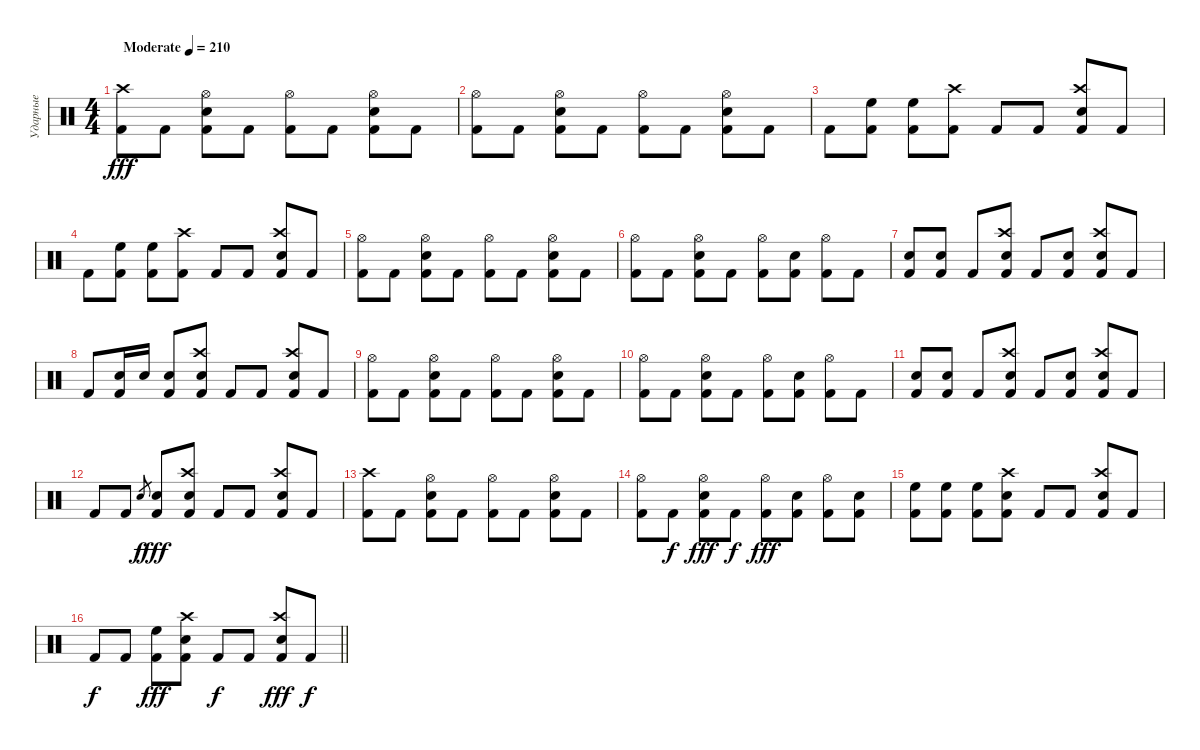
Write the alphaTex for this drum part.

\track ("Ударные" "Ударные") {instrument percussion}
\staff {score}
\articulation defaults
\ts (4 4)
\tempo (210 "Moderate")
\clef neutral
\ks c
("Kick (hit) 2" "Crash high (hit)").8{dy fff} "Kick (hit) 2".8 ("Kick (hit) 2" "Snare (hit) 2" "Hi-Hat (open)").8 "Kick (hit) 2".8 ("Kick (hit) 2" "Hi-Hat (open)").8 "Kick (hit) 2".8 ("Kick (hit) 2" "Snare (hit) 2" "Hi-Hat (open)").8 "Kick (hit) 2".8 |
("Kick (hit) 2" "Hi-Hat (open)").8 "Kick (hit) 2".8 ("Kick (hit) 2" "Snare (hit) 2" "Hi-Hat (open)").8 "Kick (hit) 2".8 ("Kick (hit) 2" "Hi-Hat (open)").8 "Kick (hit) 2".8 ("Kick (hit) 2" "Snare (hit) 2" "Hi-Hat (open)").8 "Kick (hit) 2".8 |
"Kick (hit) 2".8 ("Kick (hit) 2" "High Floor Tom (hit)").8 ("Kick (hit) 2" "High Floor Tom (hit)").8 ("Kick (hit) 2" "Crash high (hit)").8 "Kick (hit) 2".8 "Kick (hit) 2".8 ("Kick (hit) 2" "Snare (hit) 2" "Crash high (hit)").8 "Kick (hit) 2".8 |
"Kick (hit) 2".8 ("Kick (hit) 2" "High Floor Tom (hit)").8 ("Kick (hit) 2" "High Floor Tom (hit)").8 ("Kick (hit) 2" "Crash high (hit)").8 "Kick (hit) 2".8 "Kick (hit) 2".8 ("Kick (hit) 2" "Snare (hit) 2" "Crash high (hit)").8 "Kick (hit) 2".8 |
("Kick (hit) 2" "Hi-Hat (open)").8 "Kick (hit) 2".8 ("Kick (hit) 2" "Snare (hit) 2" "Hi-Hat (open)").8 "Kick (hit) 2".8 ("Kick (hit) 2" "Hi-Hat (open)").8 "Kick (hit) 2".8 ("Kick (hit) 2" "Snare (hit) 2" "Hi-Hat (open)").8 "Kick (hit) 2".8 |
("Kick (hit) 2" "Hi-Hat (open)").8 "Kick (hit) 2".8 ("Kick (hit) 2" "Snare (hit) 2" "Hi-Hat (open)").8 "Kick (hit) 2".8 ("Kick (hit) 2" "Hi-Hat (open)").8 ("Kick (hit) 2" "Snare (hit) 2").8 ("Kick (hit) 2" "Hi-Hat (open)").8 "Kick (hit) 2".8 |
("Kick (hit) 2" "Electric Snare (hit)").8 ("Kick (hit) 2" "Electric Snare (hit)").8 "Kick (hit) 2".8 ("Kick (hit) 2" "Snare (hit) 2" "Crash high (hit)").8 "Kick (hit) 2".8 ("Kick (hit) 2" "Electric Snare (hit)").8 ("Kick (hit) 2" "Snare (hit) 2" "Crash high (hit)").8 "Kick (hit) 2".8 |
"Kick (hit) 2".8 ("Kick (hit) 2" "Electric Snare (hit)").16 "Electric Snare (hit)".16 ("Kick (hit) 2" "Electric Snare (hit)").8 ("Kick (hit) 2" "Snare (hit) 2" "Crash high (hit)").8 "Kick (hit) 2".8 "Kick (hit) 2".8 ("Kick (hit) 2" "Snare (hit) 2" "Crash high (hit)").8 "Kick (hit) 2".8 |
("Kick (hit) 2" "Hi-Hat (open)").8 "Kick (hit) 2".8 ("Kick (hit) 2" "Snare (hit) 2" "Hi-Hat (open)").8 "Kick (hit) 2".8 ("Kick (hit) 2" "Hi-Hat (open)").8 "Kick (hit) 2".8 ("Kick (hit) 2" "Snare (hit) 2" "Hi-Hat (open)").8 "Kick (hit) 2".8 |
("Kick (hit) 2" "Hi-Hat (open)").8 "Kick (hit) 2".8 ("Kick (hit) 2" "Snare (hit) 2" "Hi-Hat (open)").8 "Kick (hit) 2".8 ("Kick (hit) 2" "Hi-Hat (open)").8 ("Kick (hit) 2" "Snare (hit) 2").8 ("Kick (hit) 2" "Hi-Hat (open)").8 "Kick (hit) 2".8 |
("Kick (hit) 2" "Snare (hit) 2").8 ("Kick (hit) 2" "Snare (hit) 2").8 "Kick (hit) 2".8 ("Kick (hit) 2" "Snare (hit) 2" "Crash high (hit)").8 "Kick (hit) 2".8 ("Kick (hit) 2" "Electric Snare (hit)").8 ("Kick (hit) 2" "Snare (hit) 2" "Crash high (hit)").8 "Kick (hit) 2".8 |
"Kick (hit) 2".8 "Kick (hit) 2".8 "Snare (hit) 2".8{gr dy f} ("Kick (hit) 2" "Snare (hit) 2").8{dy fff} ("Kick (hit) 2" "Snare (hit) 2" "Crash high (hit)").8 "Kick (hit) 2".8 "Kick (hit) 2".8 ("Kick (hit) 2" "Snare (hit) 2" "Crash high (hit)").8 "Kick (hit) 2".8 |
("Kick (hit) 2" "Crash high (hit)").8 "Kick (hit) 2".8 ("Kick (hit) 2" "Snare (hit) 2" "Hi-Hat (open)").8 "Kick (hit) 2".8 ("Kick (hit) 2" "Hi-Hat (open)").8 "Kick (hit) 2".8 ("Kick (hit) 2" "Snare (hit) 2" "Hi-Hat (open)").8 "Kick (hit) 2".8 |
("Kick (hit) 2" "Hi-Hat (open)").8 "Kick (hit) 2".8{dy f} ("Kick (hit) 2" "Snare (hit) 2" "Hi-Hat (open)").8{dy fff} "Kick (hit) 2".8{dy f} ("Kick (hit) 2" "Hi-Hat (open)").8{dy fff} ("Kick (hit) 2" "Snare (hit) 2").8 ("Kick (hit) 2" "Hi-Hat (open)").8 ("Kick (hit) 2" "Snare (hit) 2").8 |
("Kick (hit) 2" "High Floor Tom (hit)").8 ("Kick (hit) 2" "High Floor Tom (hit)").8 ("Kick (hit) 2" "High Floor Tom (hit)").8 ("Kick (hit) 2" "Snare (hit) 2" "Crash high (hit)").8 "Kick (hit) 2".8 "Kick (hit) 2".8 ("Kick (hit) 2" "Snare (hit) 2" "Crash high (hit)").8 "Kick (hit) 2".8 |
\barLineRight lightlight "Kick (hit) 2".8{dy f} "Kick (hit) 2".8
("Kick (hit) 2" "High Floor Tom (hit)").8{dy fff} ("Kick (hit) 2" "Snare (hit) 2" "Crash high (hit)").8 "Kick (hit) 2".8{dy f} "Kick (hit) 2".8 ("Kick (hit) 2" "Snare (hit) 2" "Crash high (hit)").8{dy fff} "Kick (hit) 2".8{dy f}
